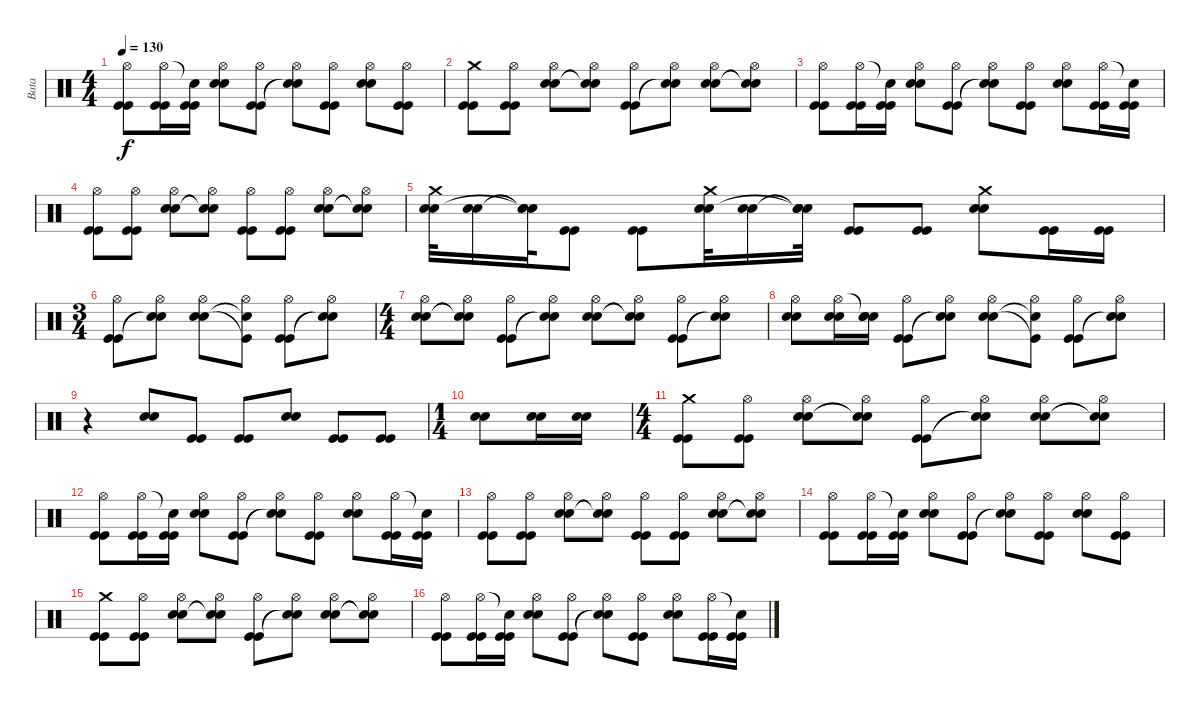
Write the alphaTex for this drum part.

\track ("Bata" "Bata") {instrument percussion}
\staff {score}
\articulation defaults
\ts (4 4)
\tempo 130
\clef neutral
\ks c
("Hi-Hat (open)" "Kick (hit)" "Kick (hit)").8{dy f} ("Hi-Hat (open)" "Kick (hit)" "Kick (hit)").16 ("Snare (hit)"{t} "Kick (hit)" "Kick (hit)").16 ("Hi-Hat (open)" "Snare (hit) 2" "Snare (hit) 2").8 ("Hi-Hat (open)" "Kick (hit)" "Kick (hit)").8 ("Hi-Hat (open)" "Snare (hit)"{t} "Snare (hit)"{t}).8 ("Hi-Hat (open)" "Kick (hit)" "Kick (hit)").8 ("Hi-Hat (open)" "Snare (hit) 2" "Snare (hit) 2").8 ("Hi-Hat (open)" "Kick (hit)" "Kick (hit)").8 |
("Crash medium (hit)" "Kick (hit)" "Kick (hit)").8 ("Hi-Hat (open)" "Kick (hit)" "Kick (hit)").8 ("Hi-Hat (open)" "Snare (hit) 2" "Snare (hit) 2").8 ("Hi-Hat (open)" "Snare (hit)"{t} "Snare (hit)"{t}).8 ("Hi-Hat (open)" "Kick (hit)" "Kick (hit)").8 ("Hi-Hat (open)" "Snare (hit)"{t} "Snare (hit)"{t}).8 ("Hi-Hat (open)" "Snare (hit) 2" "Snare (hit) 2").8 ("Hi-Hat (open)" "Snare (hit)"{t} "Snare (hit)"{t}).8 |
("Hi-Hat (open)" "Kick (hit)" "Kick (hit)").8 ("Hi-Hat (open)" "Kick (hit)" "Kick (hit)").16 ("Snare (hit)"{t} "Kick (hit)" "Kick (hit)").16 ("Hi-Hat (open)" "Snare (hit) 2" "Snare (hit) 2").8 ("Hi-Hat (open)" "Kick (hit)" "Kick (hit)").8 ("Hi-Hat (open)" "Snare (hit)"{t} "Snare (hit)"{t}).8 ("Hi-Hat (open)" "Kick (hit)" "Kick (hit)").8 ("Hi-Hat (open)" "Snare (hit) 2" "Snare (hit) 2").8 ("Hi-Hat (open)" "Kick (hit)" "Kick (hit)").16 ("Snare (hit)"{t} "Kick (hit)" "Kick (hit)").16 |
("Hi-Hat (open)" "Kick (hit)" "Kick (hit)").8 ("Hi-Hat (open)" "Kick (hit)" "Kick (hit)").8 ("Hi-Hat (open)" "Snare (hit) 2" "Snare (hit) 2").8 ("Hi-Hat (open)" "Snare (hit)"{t} "Snare (hit)"{t}).8 ("Hi-Hat (open)" "Kick (hit)" "Kick (hit)").8 ("Hi-Hat (open)" "Kick (hit)" "Kick (hit)").8 ("Hi-Hat (open)" "Snare (hit) 2" "Snare (hit) 2").8 ("Hi-Hat (open)" "Snare (hit)"{t} "Snare (hit)"{t}).8 |
("Crash medium (hit)" "Snare (hit) 2" "Snare (hit) 2").32 ("Snare (hit) 2" "Snare (hit) 2").16 ("Snare (hit)"{t} "Snare (hit)"{t} "Snare (hit)"{t}).32 ("Kick (hit)" "Kick (hit)").8 ("Kick (hit)" "Kick (hit)").8 ("Crash medium (hit)" "Snare (hit) 2" "Snare (hit) 2").32 ("Snare (hit) 2" "Snare (hit) 2").16 ("Snare (hit)"{t} "Snare (hit)"{t} "Snare (hit)"{t}).32 ("Kick (hit)" "Kick (hit)").8 ("Kick (hit)" "Kick (hit)").8 ("Crash medium (hit)" "Snare (hit) 2" "Snare (hit) 2").8 ("Kick (hit)" "Kick (hit)").16 ("Kick (hit)" "Kick (hit)").16 |
\ts (3 4)
("Hi-Hat (open)" "Kick (hit)" "Kick (hit)").8 ("Hi-Hat (open)" "Snare (hit)"{t} "Snare (hit)"{t}).8 ("Hi-Hat (open)" "Snare (hit) 2" "Snare (hit) 2").8 ("Hi-Hat (open)" "Snare (hit)"{t} "Kick (hit)"{t}).8 ("Hi-Hat (open)" "Kick (hit)" "Kick (hit)").8 ("Hi-Hat (open)" "Snare (hit)"{t} "Snare (hit)"{t}).8 |
\ts (4 4)
("Hi-Hat (open)" "Snare (hit) 2" "Snare (hit) 2").8 ("Hi-Hat (open)" "Snare (hit)"{t} "Snare (hit)"{t}).8 ("Hi-Hat (open)" "Kick (hit)" "Kick (hit)").8 ("Hi-Hat (open)" "Snare (hit)"{t} "Snare (hit)"{t}).8 ("Hi-Hat (open)" "Snare (hit) 2" "Snare (hit) 2").8 ("Hi-Hat (open)" "Snare (hit)"{t} "Snare (hit)"{t}).8 ("Hi-Hat (open)" "Kick (hit)" "Kick (hit)").8 ("Hi-Hat (open)" "Snare (hit)"{t} "Snare (hit)"{t}).8 |
("Hi-Hat (open)" "Snare (hit) 2" "Snare (hit) 2").8 ("Hi-Hat (open)" "Snare (hit) 2" "Snare (hit) 2").16 ("Snare (hit)"{t} "Snare (hit) 2" "Snare (hit) 2").16 ("Hi-Hat (open)" "Kick (hit)" "Kick (hit)").8 ("Hi-Hat (open)" "Snare (hit)"{t} "Snare (hit)"{t}).8 ("Hi-Hat (open)" "Snare (hit) 2" "Snare (hit) 2").8 ("Hi-Hat (open)" "Snare (hit)"{t} "Kick (hit)"{t}).8 ("Hi-Hat (open)" "Kick (hit)" "Kick (hit)").8 ("Hi-Hat (open)" "Snare (hit)"{t} "Snare (hit)"{t}).8 |
r.4 ("Snare (hit) 2" "Snare (hit) 2").8 ("Kick (hit)" "Kick (hit)").8 ("Kick (hit)" "Kick (hit)").8 ("Snare (hit) 2" "Snare (hit) 2").8 ("Kick (hit)" "Kick (hit)").8 ("Kick (hit)" "Kick (hit)").8 |
\ts (1 4)
("Snare (hit) 2" "Snare (hit) 2").8 ("Snare (hit) 2" "Snare (hit) 2").16 ("Snare (hit) 2" "Snare (hit) 2").16 |
\ts (4 4)
("Crash medium (hit)" "Kick (hit)" "Kick (hit)").8 ("Hi-Hat (open)" "Kick (hit)" "Kick (hit)").8 ("Hi-Hat (open)" "Snare (hit) 2" "Snare (hit) 2").8 ("Hi-Hat (open)" "Snare (hit)"{t} "Snare (hit)"{t}).8 ("Hi-Hat (open)" "Kick (hit)" "Kick (hit)").8 ("Hi-Hat (open)" "Snare (hit)"{t} "Snare (hit)"{t}).8 ("Hi-Hat (open)" "Snare (hit) 2" "Snare (hit) 2").8 ("Hi-Hat (open)" "Snare (hit)"{t} "Snare (hit)"{t}).8 |
("Hi-Hat (open)" "Kick (hit)" "Kick (hit)").8 ("Hi-Hat (open)" "Kick (hit)" "Kick (hit)").16 ("Snare (hit)"{t} "Kick (hit)" "Kick (hit)").16 ("Hi-Hat (open)" "Snare (hit) 2" "Snare (hit) 2").8 ("Hi-Hat (open)" "Kick (hit)" "Kick (hit)").8 ("Hi-Hat (open)" "Snare (hit)"{t} "Snare (hit)"{t}).8 ("Hi-Hat (open)" "Kick (hit)" "Kick (hit)").8 ("Hi-Hat (open)" "Snare (hit) 2" "Snare (hit) 2").8 ("Hi-Hat (open)" "Kick (hit)" "Kick (hit)").16 ("Snare (hit)"{t} "Kick (hit)" "Kick (hit)").16 |
("Hi-Hat (open)" "Kick (hit)" "Kick (hit)").8 ("Hi-Hat (open)" "Kick (hit)" "Kick (hit)").8 ("Hi-Hat (open)" "Snare (hit) 2" "Snare (hit) 2").8 ("Hi-Hat (open)" "Snare (hit)"{t} "Snare (hit)"{t}).8 ("Hi-Hat (open)" "Kick (hit)" "Kick (hit)").8 ("Hi-Hat (open)" "Kick (hit)" "Kick (hit)").8 ("Hi-Hat (open)" "Snare (hit) 2" "Snare (hit) 2").8 ("Hi-Hat (open)" "Snare (hit)"{t} "Snare (hit)"{t}).8 |
("Hi-Hat (open)" "Kick (hit)" "Kick (hit)").8 ("Hi-Hat (open)" "Kick (hit)" "Kick (hit)").16 ("Snare (hit)"{t} "Kick (hit)" "Kick (hit)").16 ("Hi-Hat (open)" "Snare (hit) 2" "Snare (hit) 2").8 ("Hi-Hat (open)" "Kick (hit)" "Kick (hit)").8 ("Hi-Hat (open)" "Snare (hit)"{t} "Snare (hit)"{t}).8 ("Hi-Hat (open)" "Kick (hit)" "Kick (hit)").8 ("Hi-Hat (open)" "Snare (hit) 2" "Snare (hit) 2").8 ("Hi-Hat (open)" "Kick (hit)" "Kick (hit)").8 |
("Crash medium (hit)" "Kick (hit)" "Kick (hit)").8 ("Hi-Hat (open)" "Kick (hit)" "Kick (hit)").8 ("Hi-Hat (open)" "Snare (hit) 2" "Snare (hit) 2").8 ("Hi-Hat (open)" "Snare (hit)"{t} "Snare (hit)"{t}).8 ("Hi-Hat (open)" "Kick (hit)" "Kick (hit)").8 ("Hi-Hat (open)" "Snare (hit)"{t} "Snare (hit)"{t}).8 ("Hi-Hat (open)" "Snare (hit) 2" "Snare (hit) 2").8 ("Hi-Hat (open)" "Snare (hit)"{t} "Snare (hit)"{t}).8 |
("Hi-Hat (open)" "Kick (hit)" "Kick (hit)").8 ("Hi-Hat (open)" "Kick (hit)" "Kick (hit)").16 ("Snare (hit)"{t} "Kick (hit)" "Kick (hit)").16 ("Hi-Hat (open)" "Snare (hit) 2" "Snare (hit) 2").8 ("Hi-Hat (open)" "Kick (hit)" "Kick (hit)").8 ("Hi-Hat (open)" "Snare (hit)"{t} "Snare (hit)"{t}).8 ("Hi-Hat (open)" "Kick (hit)" "Kick (hit)").8 ("Hi-Hat (open)" "Snare (hit) 2" "Snare (hit) 2").8 ("Hi-Hat (open)" "Kick (hit)" "Kick (hit)").16 ("Snare (hit)"{t} "Kick (hit)" "Kick (hit)").16
